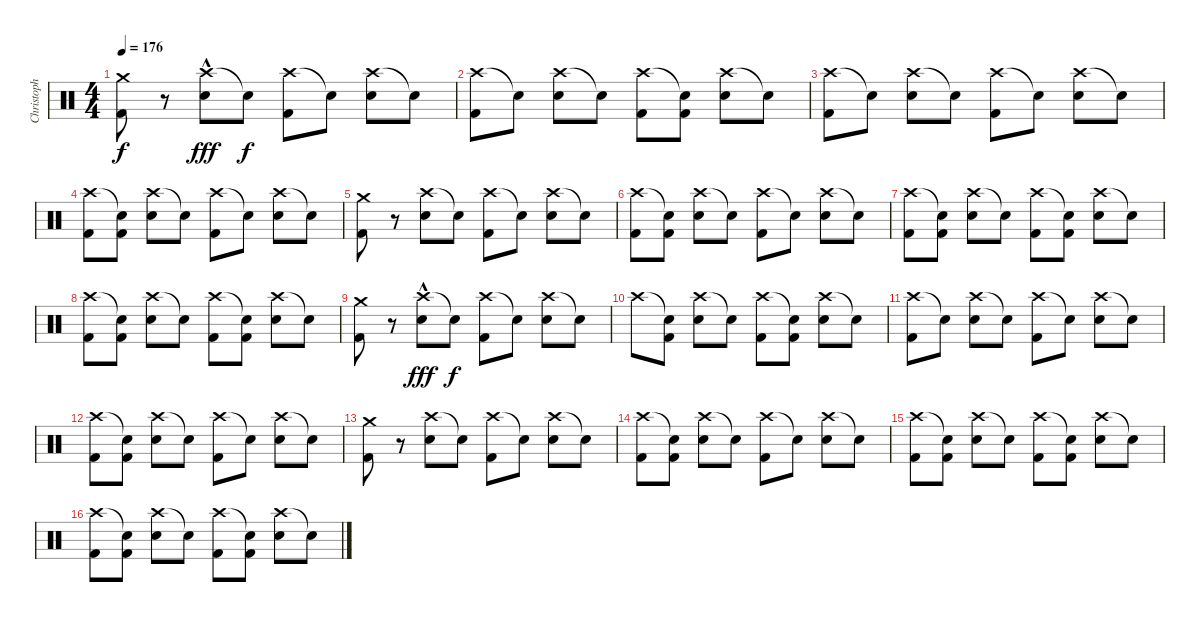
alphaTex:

\track ("Christoph" "Christoph") {instrument percussion}
\staff {score}
\articulation defaults
\ts (4 4)
\tempo 176
\clef neutral
\ks c
("Crash medium (hit)" "Kick (hit) 2").8{dy f} r.8 ("Crash high (hit)"{hac} "Snare (hit) 2").8{dy fff} "Snare (hit)"{t}.8{dy f} ("Crash high (hit)" "Kick (hit) 2").8 "Snare (hit)"{t}.8 ("Crash high (hit)" "Snare (hit) 2").8 "Snare (hit)"{t}.8 |
("Crash high (hit)" "Kick (hit) 2").8 "Snare (hit)"{t}.8 ("Crash high (hit)" "Snare (hit) 2").8 "Snare (hit)"{t}.8 ("Crash high (hit)" "Kick (hit) 2").8 ("Snare (hit)"{t} "Kick (hit) 2").8 ("Crash high (hit)" "Snare (hit) 2").8 "Snare (hit)"{t}.8 |
("Crash high (hit)" "Kick (hit) 2").8 "Snare (hit)"{t}.8 ("Crash high (hit)" "Snare (hit) 2").8 "Snare (hit)"{t}.8 ("Crash high (hit)" "Kick (hit) 2").8 "Snare (hit)"{t}.8 ("Crash high (hit)" "Snare (hit) 2").8 "Snare (hit)"{t}.8 |
("Crash high (hit)" "Kick (hit) 2").8 ("Snare (hit)"{t} "Kick (hit) 2").8 ("Crash high (hit)" "Snare (hit) 2").8 "Snare (hit)"{t}.8 ("Crash high (hit)" "Kick (hit) 2").8 "Snare (hit)"{t}.8 ("Crash high (hit)" "Snare (hit) 2").8 "Snare (hit)"{t}.8 |
("Crash medium (hit)" "Kick (hit) 2").8 r.8 ("Crash high (hit)" "Snare (hit) 2").8 "Snare (hit)"{t}.8 ("Crash high (hit)" "Kick (hit) 2").8 "Snare (hit)"{t}.8 ("Crash high (hit)" "Snare (hit) 2").8 "Snare (hit)"{t}.8 |
("Crash high (hit)" "Kick (hit) 2").8 ("Snare (hit)"{t} "Kick (hit) 2").8 ("Crash high (hit)" "Snare (hit) 2").8 "Snare (hit)"{t}.8 ("Crash high (hit)" "Kick (hit) 2").8 "Snare (hit)"{t}.8 ("Crash high (hit)" "Snare (hit) 2").8 "Snare (hit)"{t}.8 |
("Crash high (hit)" "Kick (hit) 2").8 ("Snare (hit)"{t} "Kick (hit) 2").8 ("Crash high (hit)" "Snare (hit) 2").8 "Snare (hit)"{t}.8 ("Crash high (hit)" "Kick (hit) 2").8 ("Snare (hit)"{t} "Kick (hit) 2").8 ("Crash high (hit)" "Snare (hit) 2").8 "Snare (hit)"{t}.8 |
("Crash high (hit)" "Kick (hit) 2").8 ("Snare (hit)"{t} "Kick (hit) 2").8 ("Crash high (hit)" "Snare (hit) 2").8 "Snare (hit)"{t}.8 ("Crash high (hit)" "Kick (hit) 2").8 ("Snare (hit)"{t} "Kick (hit) 2").8 ("Crash high (hit)" "Snare (hit) 2").8 "Snare (hit)"{t}.8 |
("Crash medium (hit)" "Kick (hit) 2").8 r.8 ("Crash high (hit)"{hac} "Snare (hit) 2").8{dy fff} "Snare (hit)"{t}.8{dy f} ("Crash high (hit)" "Kick (hit) 2").8 "Snare (hit)"{t}.8 ("Crash high (hit)" "Snare (hit) 2").8 "Snare (hit)"{t}.8 |
"Crash high (hit)".8 ("Snare (hit)"{t} "Kick (hit) 2").8 ("Crash high (hit)" "Snare (hit) 2").8 "Snare (hit)"{t}.8 ("Crash high (hit)" "Kick (hit) 2").8 ("Snare (hit)"{t} "Kick (hit) 2").8 ("Crash high (hit)" "Snare (hit) 2").8 "Snare (hit)"{t}.8 |
("Crash high (hit)" "Kick (hit) 2").8 "Snare (hit)"{t}.8 ("Crash high (hit)" "Snare (hit) 2").8 "Snare (hit)"{t}.8 ("Crash high (hit)" "Kick (hit) 2").8 "Snare (hit)"{t}.8 ("Crash high (hit)" "Snare (hit) 2").8 "Snare (hit)"{t}.8 |
("Crash high (hit)" "Kick (hit) 2").8 ("Snare (hit)"{t} "Kick (hit) 2").8 ("Crash high (hit)" "Snare (hit) 2").8 "Snare (hit)"{t}.8 ("Crash high (hit)" "Kick (hit) 2").8 "Snare (hit)"{t}.8 ("Crash high (hit)" "Snare (hit) 2").8 "Snare (hit)"{t}.8 |
("Crash medium (hit)" "Kick (hit) 2").8 r.8 ("Crash high (hit)" "Snare (hit) 2").8 "Snare (hit)"{t}.8 ("Crash high (hit)" "Kick (hit) 2").8 "Snare (hit)"{t}.8 ("Crash high (hit)" "Snare (hit) 2").8 "Snare (hit)"{t}.8 |
("Crash high (hit)" "Kick (hit) 2").8 ("Snare (hit)"{t} "Kick (hit) 2").8 ("Crash high (hit)" "Snare (hit) 2").8 "Snare (hit)"{t}.8 ("Crash high (hit)" "Kick (hit) 2").8 "Snare (hit)"{t}.8 ("Crash high (hit)" "Snare (hit) 2").8 "Snare (hit)"{t}.8 |
("Crash high (hit)" "Kick (hit) 2").8 ("Snare (hit)"{t} "Kick (hit) 2").8 ("Crash high (hit)" "Snare (hit) 2").8 "Snare (hit)"{t}.8 ("Crash high (hit)" "Kick (hit) 2").8 ("Snare (hit)"{t} "Kick (hit) 2").8 ("Crash high (hit)" "Snare (hit) 2").8 "Snare (hit)"{t}.8 |
("Crash high (hit)" "Kick (hit) 2").8 ("Snare (hit)"{t} "Kick (hit) 2").8 ("Crash high (hit)" "Snare (hit) 2").8 "Snare (hit)"{t}.8 ("Crash high (hit)" "Kick (hit) 2").8 ("Snare (hit)"{t} "Kick (hit) 2").8 ("Crash high (hit)" "Snare (hit) 2").8 "Snare (hit)"{t}.8
